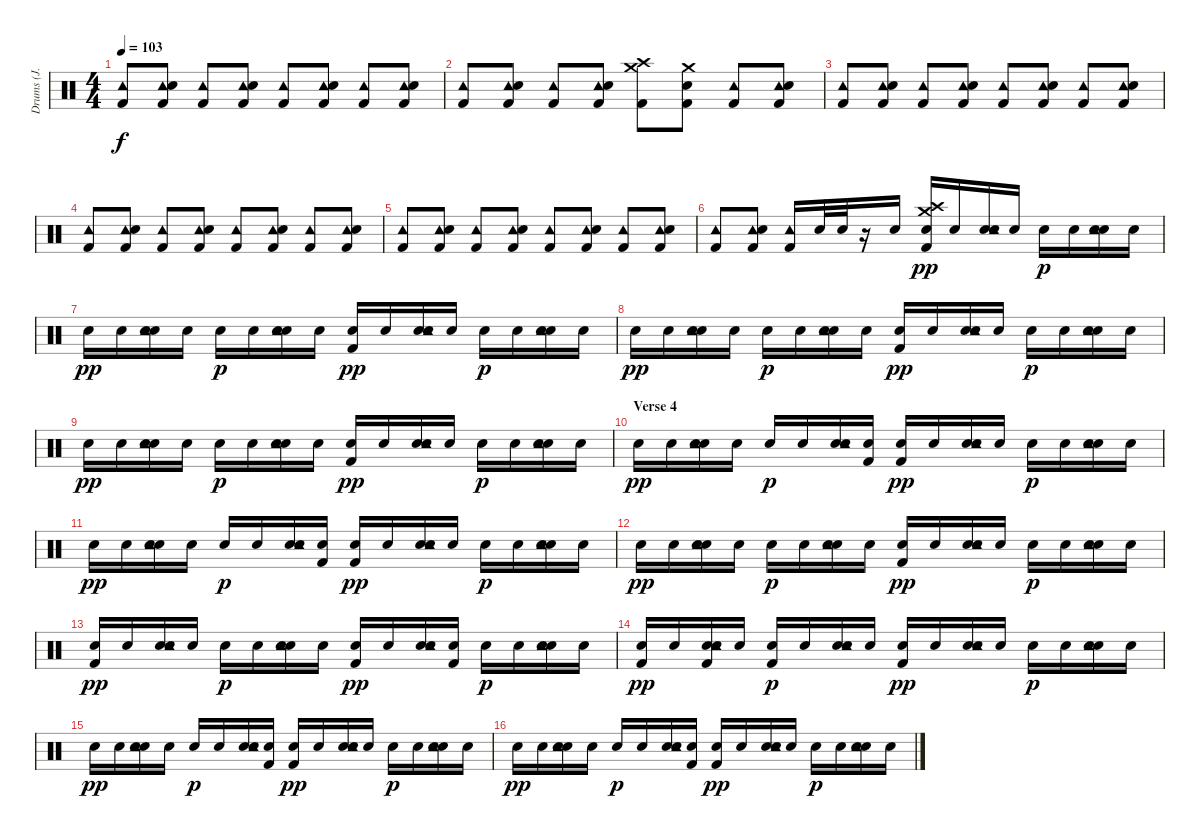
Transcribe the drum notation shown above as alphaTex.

\track ("Drums (J. Cramer)" "Drums (J. ") {instrument percussion}
\staff {score}
\articulation defaults
\ts (4 4)
\tempo 103
\clef neutral
\ks c
("Tambourine (hit)" "Kick (hit) 2").8{dy f} ("Tambourine (hit)" "Electric Snare (hit)" "Kick (hit) 2").8 ("Tambourine (hit)" "Kick (hit) 2").8 ("Tambourine (hit)" "Electric Snare (hit)" "Kick (hit) 2").8 ("Tambourine (hit)" "Kick (hit) 2").8 ("Tambourine (hit)" "Electric Snare (hit)" "Kick (hit) 2").8 ("Tambourine (hit)" "Kick (hit) 2").8 ("Tambourine (hit)" "Electric Snare (hit)" "Kick (hit) 2").8 |
("Tambourine (hit)" "Kick (hit) 2").8 ("Tambourine (hit)" "Electric Snare (hit)" "Kick (hit) 2").8 ("Tambourine (hit)" "Kick (hit) 2").8 ("Tambourine (hit)" "Electric Snare (hit)" "Kick (hit) 2").8 ("Kick (hit) 2" "Crash high (hit)" "Crash medium (hit)").8 ("Electric Snare (hit)" "Kick (hit) 2" "Crash medium (hit)").8 ("Tambourine (hit)" "Kick (hit) 2").8 ("Tambourine (hit)" "Electric Snare (hit)" "Kick (hit) 2").8 |
("Tambourine (hit)" "Kick (hit) 2").8 ("Tambourine (hit)" "Electric Snare (hit)" "Kick (hit) 2").8 ("Tambourine (hit)" "Kick (hit) 2").8 ("Tambourine (hit)" "Electric Snare (hit)" "Kick (hit) 2").8 ("Tambourine (hit)" "Kick (hit) 2").8 ("Tambourine (hit)" "Electric Snare (hit)" "Kick (hit) 2").8 ("Tambourine (hit)" "Kick (hit) 2").8 ("Tambourine (hit)" "Electric Snare (hit)" "Kick (hit) 2").8 |
("Tambourine (hit)" "Kick (hit) 2").8 ("Tambourine (hit)" "Electric Snare (hit)" "Kick (hit) 2").8 ("Tambourine (hit)" "Kick (hit) 2").8 ("Tambourine (hit)" "Electric Snare (hit)" "Kick (hit) 2").8 ("Tambourine (hit)" "Kick (hit) 2").8 ("Tambourine (hit)" "Electric Snare (hit)" "Kick (hit) 2").8 ("Tambourine (hit)" "Kick (hit) 2").8 ("Tambourine (hit)" "Electric Snare (hit)" "Kick (hit) 2").8 |
("Tambourine (hit)" "Kick (hit) 2").8 ("Tambourine (hit)" "Electric Snare (hit)" "Kick (hit) 2").8 ("Tambourine (hit)" "Kick (hit) 2").8 ("Tambourine (hit)" "Electric Snare (hit)" "Kick (hit) 2").8 ("Tambourine (hit)" "Kick (hit) 2").8 ("Tambourine (hit)" "Electric Snare (hit)" "Kick (hit) 2").8 ("Tambourine (hit)" "Kick (hit) 2").8 ("Tambourine (hit)" "Electric Snare (hit)" "Kick (hit) 2").8 |
("Tambourine (hit)" "Kick (hit) 2").8 ("Tambourine (hit)" "Electric Snare (hit)" "Kick (hit) 2").8 ("Tambourine (hit)" "Kick (hit) 2").16 "Electric Snare (hit)".32 "Electric Snare (hit)".32 r.16 "Electric Snare (hit)".16 ("Snare (hit) 2" "Crash medium (hit)" "Crash high (hit)" "Kick (hit) 2").16{dy pp} "Snare (hit) 2".16 ("Snare (hit) 2" "Tambourine (hit)" "Electric Snare (hit)").16 "Snare (hit) 2".16 "Snare (hit) 2".16{dy p} "Snare (hit) 2".16 ("Snare (hit) 2" "Tambourine (hit)" "Electric Snare (hit)").16 "Snare (hit) 2".16 |
"Snare (hit) 2".16{dy pp} "Snare (hit) 2".16 ("Snare (hit) 2" "Tambourine (hit)" "Electric Snare (hit)").16 "Snare (hit) 2".16 "Snare (hit) 2".16{dy p} "Snare (hit) 2".16 ("Snare (hit) 2" "Tambourine (hit)" "Electric Snare (hit)").16 "Snare (hit) 2".16 ("Snare (hit) 2" "Kick (hit) 2").16{dy pp} "Snare (hit) 2".16 ("Snare (hit) 2" "Tambourine (hit)" "Electric Snare (hit)").16 "Snare (hit) 2".16 "Snare (hit) 2".16{dy p} "Snare (hit) 2".16 ("Snare (hit) 2" "Tambourine (hit)" "Electric Snare (hit)").16 "Snare (hit) 2".16 |
"Snare (hit) 2".16{dy pp} "Snare (hit) 2".16 ("Snare (hit) 2" "Tambourine (hit)" "Electric Snare (hit)").16 "Snare (hit) 2".16 "Snare (hit) 2".16{dy p} "Snare (hit) 2".16 ("Snare (hit) 2" "Tambourine (hit)" "Electric Snare (hit)").16 "Snare (hit) 2".16 ("Snare (hit) 2" "Kick (hit) 2").16{dy pp} "Snare (hit) 2".16 ("Snare (hit) 2" "Tambourine (hit)" "Electric Snare (hit)").16 "Snare (hit) 2".16 "Snare (hit) 2".16{dy p} "Snare (hit) 2".16 ("Snare (hit) 2" "Tambourine (hit)" "Electric Snare (hit)").16 "Snare (hit) 2".16 |
"Snare (hit) 2".16{dy pp} "Snare (hit) 2".16 ("Snare (hit) 2" "Tambourine (hit)" "Electric Snare (hit)").16 "Snare (hit) 2".16 "Snare (hit) 2".16{dy p} "Snare (hit) 2".16 ("Snare (hit) 2" "Tambourine (hit)" "Electric Snare (hit)").16 "Snare (hit) 2".16 ("Snare (hit) 2" "Kick (hit) 2").16{dy pp} "Snare (hit) 2".16 ("Snare (hit) 2" "Tambourine (hit)" "Electric Snare (hit)").16 "Snare (hit) 2".16 "Snare (hit) 2".16{dy p} "Snare (hit) 2".16 ("Snare (hit) 2" "Tambourine (hit)" "Electric Snare (hit)").16 "Snare (hit) 2".16 |
\section ("" "Verse 4")
"Snare (hit) 2".16{dy pp} "Snare (hit) 2".16 ("Snare (hit) 2" "Tambourine (hit)" "Electric Snare (hit)").16 "Snare (hit) 2".16 "Snare (hit) 2".16{dy p} "Snare (hit) 2".16 ("Snare (hit) 2" "Tambourine (hit)" "Electric Snare (hit)").16 ("Snare (hit) 2" "Kick (hit) 2").16 ("Snare (hit) 2" "Kick (hit) 2").16{dy pp} "Snare (hit) 2".16 ("Snare (hit) 2" "Tambourine (hit)" "Electric Snare (hit)").16 "Snare (hit) 2".16 "Snare (hit) 2".16{dy p} "Snare (hit) 2".16 ("Snare (hit) 2" "Tambourine (hit)" "Electric Snare (hit)").16 "Snare (hit) 2".16 |
"Snare (hit) 2".16{dy pp} "Snare (hit) 2".16 ("Snare (hit) 2" "Tambourine (hit)" "Electric Snare (hit)").16 "Snare (hit) 2".16 "Snare (hit) 2".16{dy p} "Snare (hit) 2".16 ("Snare (hit) 2" "Tambourine (hit)" "Electric Snare (hit)").16 ("Snare (hit) 2" "Kick (hit) 2").16 ("Snare (hit) 2" "Kick (hit) 2").16{dy pp} "Snare (hit) 2".16 ("Snare (hit) 2" "Tambourine (hit)" "Electric Snare (hit)").16 "Snare (hit) 2".16 "Snare (hit) 2".16{dy p} "Snare (hit) 2".16 ("Snare (hit) 2" "Tambourine (hit)" "Electric Snare (hit)").16 "Snare (hit) 2".16 |
"Snare (hit) 2".16{dy pp} "Snare (hit) 2".16 ("Snare (hit) 2" "Tambourine (hit)" "Electric Snare (hit)").16 "Snare (hit) 2".16 "Snare (hit) 2".16{dy p} "Snare (hit) 2".16 ("Snare (hit) 2" "Tambourine (hit)" "Electric Snare (hit)").16 "Snare (hit) 2".16 ("Snare (hit) 2" "Kick (hit) 2").16{dy pp} "Snare (hit) 2".16 ("Snare (hit) 2" "Tambourine (hit)" "Electric Snare (hit)").16 "Snare (hit) 2".16 "Snare (hit) 2".16{dy p} "Snare (hit) 2".16 ("Snare (hit) 2" "Tambourine (hit)" "Electric Snare (hit)").16 "Snare (hit) 2".16 |
("Snare (hit) 2" "Kick (hit) 2").16{dy pp} "Snare (hit) 2".16 ("Snare (hit) 2" "Tambourine (hit)" "Electric Snare (hit)").16 "Snare (hit) 2".16 "Snare (hit) 2".16{dy p} "Snare (hit) 2".16 ("Snare (hit) 2" "Tambourine (hit)" "Electric Snare (hit)").16 "Snare (hit) 2".16 ("Snare (hit) 2" "Kick (hit) 2").16{dy pp} "Snare (hit) 2".16 ("Snare (hit) 2" "Tambourine (hit)" "Electric Snare (hit)").16 ("Snare (hit) 2" "Kick (hit) 2").16 "Snare (hit) 2".16{dy p} "Snare (hit) 2".16 ("Snare (hit) 2" "Tambourine (hit)" "Electric Snare (hit)").16 "Snare (hit) 2".16 |
("Snare (hit) 2" "Kick (hit) 2").16{dy pp} "Snare (hit) 2".16 ("Snare (hit) 2" "Kick (hit) 2" "Tambourine (hit)" "Electric Snare (hit)").16 "Snare (hit) 2".16 ("Snare (hit) 2" "Kick (hit) 2").16{dy p} "Snare (hit) 2".16 ("Snare (hit) 2" "Tambourine (hit)" "Electric Snare (hit)").16 "Snare (hit) 2".16 ("Snare (hit) 2" "Kick (hit) 2").16{dy pp} "Snare (hit) 2".16 ("Snare (hit) 2" "Tambourine (hit)" "Electric Snare (hit)").16 "Snare (hit) 2".16 "Snare (hit) 2".16{dy p} "Snare (hit) 2".16 ("Snare (hit) 2" "Tambourine (hit)" "Electric Snare (hit)").16 "Snare (hit) 2".16 |
"Snare (hit) 2".16{dy pp} "Snare (hit) 2".16 ("Snare (hit) 2" "Tambourine (hit)" "Electric Snare (hit)").16 "Snare (hit) 2".16 "Snare (hit) 2".16{dy p} "Snare (hit) 2".16 ("Snare (hit) 2" "Tambourine (hit)" "Electric Snare (hit)").16 ("Snare (hit) 2" "Kick (hit) 2").16 ("Snare (hit) 2" "Kick (hit) 2").16{dy pp} "Snare (hit) 2".16 ("Snare (hit) 2" "Tambourine (hit)" "Electric Snare (hit)").16 "Snare (hit) 2".16 "Snare (hit) 2".16{dy p} "Snare (hit) 2".16 ("Snare (hit) 2" "Tambourine (hit)" "Electric Snare (hit)").16 "Snare (hit) 2".16 |
"Snare (hit) 2".16{dy pp} "Snare (hit) 2".16 ("Snare (hit) 2" "Tambourine (hit)" "Electric Snare (hit)").16 "Snare (hit) 2".16 "Snare (hit) 2".16{dy p} "Snare (hit) 2".16 ("Snare (hit) 2" "Tambourine (hit)" "Electric Snare (hit)").16 ("Snare (hit) 2" "Kick (hit) 2").16 ("Snare (hit) 2" "Kick (hit) 2").16{dy pp} "Snare (hit) 2".16 ("Snare (hit) 2" "Tambourine (hit)" "Electric Snare (hit)").16 "Snare (hit) 2".16 "Snare (hit) 2".16{dy p} "Snare (hit) 2".16 ("Snare (hit) 2" "Tambourine (hit)" "Electric Snare (hit)").16 "Snare (hit) 2".16
